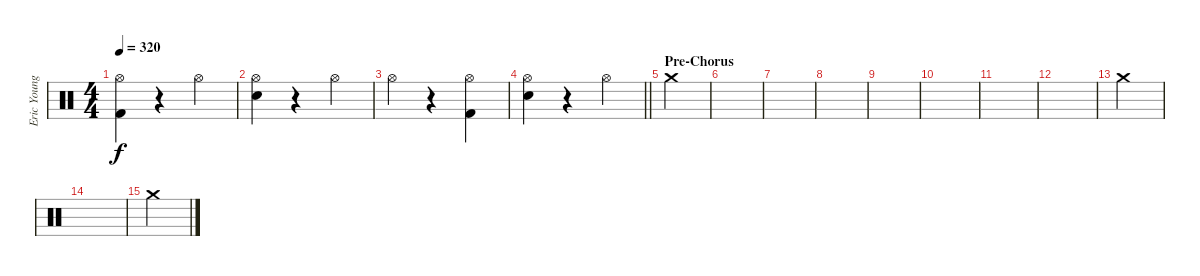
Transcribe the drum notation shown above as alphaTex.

\track ("Eric Young (Drums)" "Eric Young") {instrument percussion}
\staff {score}
\articulation defaults
\ts (4 4)
\tempo 320
\clef neutral
\ks c
("Hi-Hat (open)" "Kick (hit) 2").4{dy f} r.4 "Hi-Hat (open)".4 |
("Hi-Hat (open)" "Snare (hit) 2").4 r.4 "Hi-Hat (open)".4 |
"Hi-Hat (open)".4 r.4 ("Hi-Hat (open)" "Kick (hit) 2").4 |
\barLineRight lightlight
("Hi-Hat (open)" "Snare (hit) 2").4 r.4 "Hi-Hat (open)".4 |
\section ("" "Pre-Chorus")
"Crash medium (hit)".4 |
|
|
|
|
|
|
|
"Crash medium (hit)".4 |
|
"Crash medium (hit)".4
